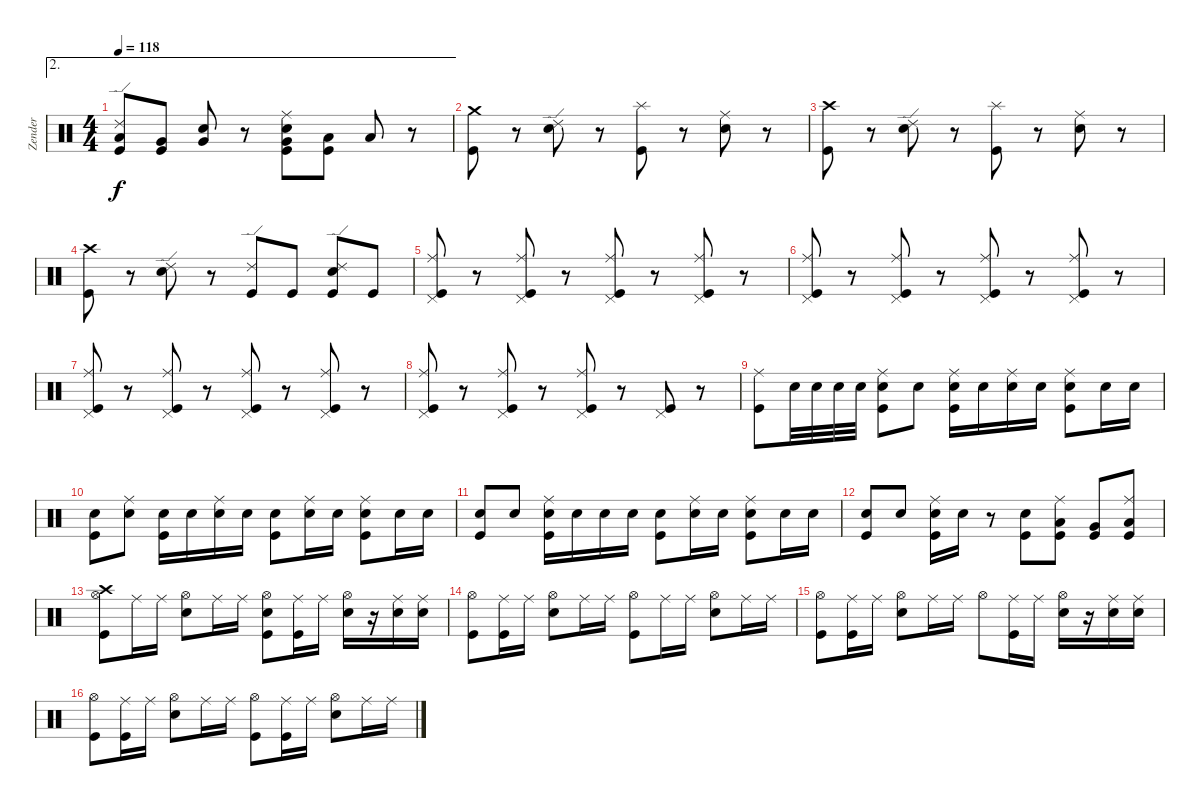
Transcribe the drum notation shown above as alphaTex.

\track ("Zender" "Zender") {instrument percussion}
\staff {score}
\articulation defaults
\ae 2
\ts (4 4)
\tempo 118
\clef neutral
\ks c
("Low Tom (hit)" "Ride (edge) 2" "Kick (hit)").8{dy f} ("Very Low Tom (hit)" "Kick (hit)").8 ("Very Low Tom (hit)" "Snare (hit) 2").8 r.8 ("Very Low Tom (hit)" "Ride (middle)" "Snare (hit) 2" "Kick (hit)").8 ("Low Floor Tom (hit)" "Kick (hit)").8 "Low Floor Tom (hit)".8 r.8 |
("Crash medium (hit)" "Kick (hit)").8 r.8 ("Ride (edge) 2" "Snare (hit) 2").8 r.8 ("Splash (hit)" "Kick (hit)").8 r.8 ("Ride (middle)" "Snare (hit) 2").8 r.8 |
("Crash high (hit)" "Kick (hit)").8 r.8 ("Ride (edge) 2" "Snare (hit) 2").8 r.8 ("Splash (hit)" "Kick (hit)").8 r.8 ("Ride (middle)" "Snare (hit) 2").8 r.8 |
("Crash high (hit)" "Kick (hit)").8 r.8 ("Ride (edge) 2" "Snare (hit) 2").8 r.8 ("Ride (edge) 2" "Kick (hit)").8 "Kick (hit)".8 ("Ride (edge) 2" "Snare (hit) 2" "Kick (hit)").8 "Kick (hit)".8 |
("Pedal Hi-Hat (hit)" "Ride (middle)" "Kick (hit)").8 r.8 ("Pedal Hi-Hat (hit)" "Ride (middle)" "Kick (hit)").8 r.8 ("Pedal Hi-Hat (hit)" "Ride (middle)" "Kick (hit)").8 r.8 ("Pedal Hi-Hat (hit)" "Ride (middle)" "Kick (hit)").8 r.8 |
("Pedal Hi-Hat (hit)" "Ride (middle)" "Kick (hit)").8 r.8 ("Pedal Hi-Hat (hit)" "Ride (middle)" "Kick (hit)").8 r.8 ("Pedal Hi-Hat (hit)" "Ride (middle)" "Kick (hit)").8 r.8 ("Pedal Hi-Hat (hit)" "Ride (middle)" "Kick (hit)").8 r.8 |
("Pedal Hi-Hat (hit)" "Ride (middle)" "Kick (hit)").8 r.8 ("Pedal Hi-Hat (hit)" "Ride (middle)" "Kick (hit)").8 r.8 ("Pedal Hi-Hat (hit)" "Ride (middle)" "Kick (hit)").8 r.8 ("Pedal Hi-Hat (hit)" "Ride (middle)" "Kick (hit)").8 r.8 |
("Pedal Hi-Hat (hit)" "Ride (middle)" "Kick (hit)").8 r.8 ("Pedal Hi-Hat (hit)" "Ride (middle)" "Kick (hit)").8 r.8 ("Pedal Hi-Hat (hit)" "Ride (middle)" "Kick (hit)").8 r.8 ("Pedal Hi-Hat (hit)" "Kick (hit)").8 r.8 |
("Ride (middle)" "Kick (hit)").8 "Snare (hit) 2".32 "Snare (hit) 2".32 "Snare (hit) 2".32 "Snare (hit) 2".32 ("Ride (middle)" "Snare (hit) 2" "Kick (hit)").8 "Snare (hit) 2".8 ("Ride (middle)" "Snare (hit) 2" "Kick (hit)").16 "Snare (hit) 2".16 ("Ride (middle)" "Snare (hit) 2").16 "Snare (hit) 2".16 ("Ride (middle)" "Snare (hit) 2" "Kick (hit)").8 "Snare (hit) 2".16 "Snare (hit) 2".16 |
("Snare (hit) 2" "Kick (hit)").8 ("Ride (middle)" "Snare (hit) 2").8 ("Snare (hit) 2" "Kick (hit)").16 "Snare (hit) 2".16 ("Ride (middle)" "Snare (hit) 2").16 "Snare (hit) 2".16 ("Snare (hit) 2" "Kick (hit)").8 ("Ride (middle)" "Snare (hit) 2").16 "Snare (hit) 2".16 ("Ride (middle)" "Snare (hit) 2" "Kick (hit)").8 "Snare (hit) 2".16 "Snare (hit) 2".16 |
("Snare (hit) 2" "Kick (hit)").8 "Snare (hit) 2".8 ("Ride (middle)" "Snare (hit) 2" "Kick (hit)").16 "Snare (hit) 2".16 "Snare (hit) 2".16 "Snare (hit) 2".16 ("Snare (hit) 2" "Kick (hit)").8 ("Ride (middle)" "Snare (hit) 2").16 "Snare (hit) 2".16 ("Ride (middle)" "Snare (hit) 2" "Kick (hit)").8 "Snare (hit) 2".16 "Snare (hit) 2".16 |
("Snare (hit) 2" "Kick (hit)").8 "Snare (hit) 2".8 ("Ride (middle)" "Snare (hit) 2" "Kick (hit)").16 "Snare (hit) 2".16 r.8 ("Snare (hit) 2" "Kick (hit)").8 ("Ride (middle)" "Low Tom (hit)" "Kick (hit)").8 ("Very Low Tom (hit)" "Kick (hit)").8 ("Ride (middle)" "Low Floor Tom (hit)" "Kick (hit)").8 |
("Crash high (hit)" "Hi-Hat (open)" "Kick (hit)").8 "Ride (middle)".16 "Ride (middle)".16 ("Hi-Hat (open)" "Snare (hit) 2").8 "Ride (middle)".16 "Ride (middle)".16 ("Hi-Hat (open)" "Snare (hit) 2" "Kick (hit)").8 ("Ride (middle)" "Kick (hit)").16 "Ride (middle)".16 ("Hi-Hat (open)" "Snare (hit) 2").16 r.16 ("Ride (middle)" "Snare (hit) 2").16 ("Ride (middle)" "Snare (hit) 2").16 |
("Hi-Hat (open)" "Kick (hit)").8 ("Ride (middle)" "Kick (hit)").16 "Ride (middle)".16 ("Hi-Hat (open)" "Snare (hit) 2").8 "Ride (middle)".16 "Ride (middle)".16 ("Hi-Hat (open)" "Kick (hit)").8 "Ride (middle)".16 "Ride (middle)".16 ("Hi-Hat (open)" "Snare (hit) 2").8 "Ride (middle)".16 "Ride (middle)".16 |
("Hi-Hat (open)" "Kick (hit)").8 ("Ride (middle)" "Kick (hit)").16 "Ride (middle)".16 ("Hi-Hat (open)" "Snare (hit) 2").8 "Ride (middle)".16 "Ride (middle)".16 "Hi-Hat (open)".8 ("Ride (middle)" "Kick (hit)").16 "Ride (middle)".16 ("Hi-Hat (open)" "Snare (hit) 2").16 r.16 ("Ride (middle)" "Snare (hit) 2").16 ("Ride (middle)" "Snare (hit) 2").16 |
("Hi-Hat (open)" "Kick (hit)").8 ("Ride (middle)" "Kick (hit)").16 "Ride (middle)".16 ("Hi-Hat (open)" "Snare (hit) 2").8 "Ride (middle)".16 "Ride (middle)".16 ("Hi-Hat (open)" "Kick (hit)").8 ("Ride (middle)" "Kick (hit)").16 "Ride (middle)".16 ("Hi-Hat (open)" "Snare (hit) 2").8 "Ride (middle)".16 "Ride (middle)".16
